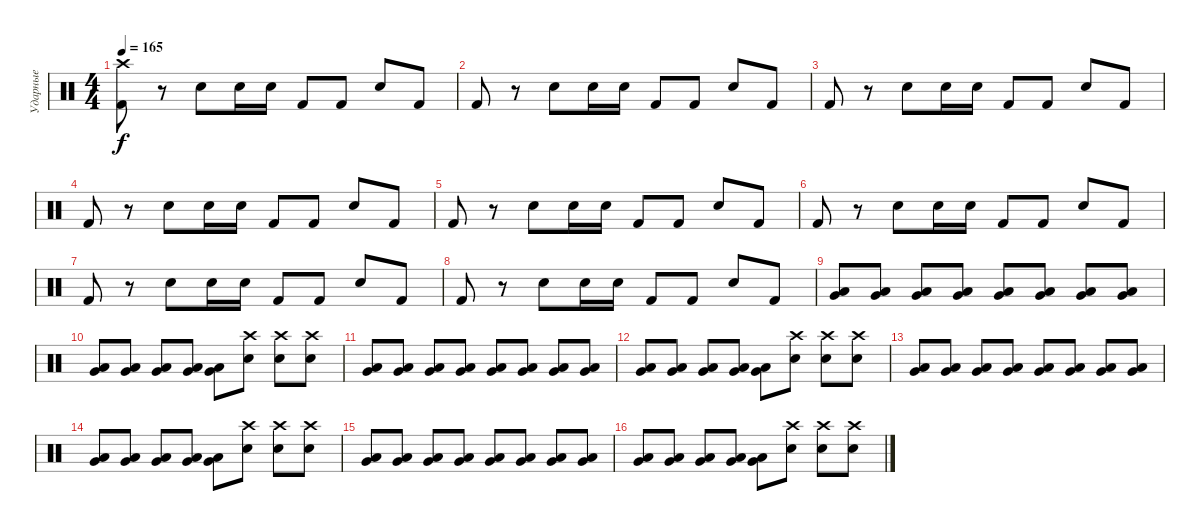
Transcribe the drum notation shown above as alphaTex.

\track ("Ударные" "Ударные") {instrument percussion}
\staff {score}
\articulation defaults
\ts (4 4)
\tempo 165
\clef neutral
\ks c
("Crash high (hit)" "Kick (hit) 2").8{dy f} r.8 "Electric Snare (hit)".8 "Electric Snare (hit)".16 "Electric Snare (hit)".16 "Kick (hit) 2".8 "Kick (hit) 2".8 "Electric Snare (hit)".8 "Kick (hit) 2".8 |
"Kick (hit) 2".8 r.8 "Electric Snare (hit)".8 "Electric Snare (hit)".16 "Electric Snare (hit)".16 "Kick (hit) 2".8 "Kick (hit) 2".8 "Electric Snare (hit)".8 "Kick (hit) 2".8 |
"Kick (hit) 2".8 r.8 "Electric Snare (hit)".8 "Electric Snare (hit)".16 "Electric Snare (hit)".16 "Kick (hit) 2".8 "Kick (hit) 2".8 "Electric Snare (hit)".8 "Kick (hit) 2".8 |
"Kick (hit) 2".8 r.8 "Electric Snare (hit)".8 "Electric Snare (hit)".16 "Electric Snare (hit)".16 "Kick (hit) 2".8 "Kick (hit) 2".8 "Electric Snare (hit)".8 "Kick (hit) 2".8 |
"Kick (hit) 2".8 r.8 "Electric Snare (hit)".8 "Electric Snare (hit)".16 "Electric Snare (hit)".16 "Kick (hit) 2".8 "Kick (hit) 2".8 "Electric Snare (hit)".8 "Kick (hit) 2".8 |
"Kick (hit) 2".8 r.8 "Electric Snare (hit)".8 "Electric Snare (hit)".16 "Electric Snare (hit)".16 "Kick (hit) 2".8 "Kick (hit) 2".8 "Electric Snare (hit)".8 "Kick (hit) 2".8 |
"Kick (hit) 2".8 r.8 "Electric Snare (hit)".8 "Electric Snare (hit)".16 "Electric Snare (hit)".16 "Kick (hit) 2".8 "Kick (hit) 2".8 "Electric Snare (hit)".8 "Kick (hit) 2".8 |
"Kick (hit) 2".8 r.8 "Electric Snare (hit)".8 "Electric Snare (hit)".16 "Electric Snare (hit)".16 "Kick (hit) 2".8 "Kick (hit) 2".8 "Electric Snare (hit)".8 "Kick (hit) 2".8 |
("Very Low Tom (hit)" "Low Floor Tom (hit)").8 ("Very Low Tom (hit)" "Low Floor Tom (hit)").8 ("Very Low Tom (hit)" "Low Floor Tom (hit)").8 ("Very Low Tom (hit)" "Low Floor Tom (hit)").8 ("Very Low Tom (hit)" "Low Floor Tom (hit)").8 ("Very Low Tom (hit)" "Low Floor Tom (hit)").8 ("Very Low Tom (hit)" "Low Floor Tom (hit)").8 ("Very Low Tom (hit)" "Low Floor Tom (hit)").8 |
("Very Low Tom (hit)" "Low Floor Tom (hit)").8 ("Very Low Tom (hit)" "Low Floor Tom (hit)").8 ("Very Low Tom (hit)" "Low Floor Tom (hit)").8 ("Very Low Tom (hit)" "Low Floor Tom (hit)").8 ("Very Low Tom (hit)" "Low Floor Tom (hit)").8 ("Crash high (hit)" "Electric Snare (hit)").8 ("Crash high (hit)" "Electric Snare (hit)").8 ("Crash high (hit)" "Electric Snare (hit)").8 |
("Very Low Tom (hit)" "Low Floor Tom (hit)").8 ("Very Low Tom (hit)" "Low Floor Tom (hit)").8 ("Very Low Tom (hit)" "Low Floor Tom (hit)").8 ("Very Low Tom (hit)" "Low Floor Tom (hit)").8 ("Very Low Tom (hit)" "Low Floor Tom (hit)").8 ("Very Low Tom (hit)" "Low Floor Tom (hit)").8 ("Very Low Tom (hit)" "Low Floor Tom (hit)").8 ("Very Low Tom (hit)" "Low Floor Tom (hit)").8 |
("Very Low Tom (hit)" "Low Floor Tom (hit)").8 ("Very Low Tom (hit)" "Low Floor Tom (hit)").8 ("Very Low Tom (hit)" "Low Floor Tom (hit)").8 ("Very Low Tom (hit)" "Low Floor Tom (hit)").8 ("Very Low Tom (hit)" "Low Floor Tom (hit)").8 ("Crash high (hit)" "Electric Snare (hit)").8 ("Crash high (hit)" "Electric Snare (hit)").8 ("Crash high (hit)" "Electric Snare (hit)").8 |
("Very Low Tom (hit)" "Low Floor Tom (hit)").8 ("Very Low Tom (hit)" "Low Floor Tom (hit)").8 ("Very Low Tom (hit)" "Low Floor Tom (hit)").8 ("Very Low Tom (hit)" "Low Floor Tom (hit)").8 ("Very Low Tom (hit)" "Low Floor Tom (hit)").8 ("Very Low Tom (hit)" "Low Floor Tom (hit)").8 ("Very Low Tom (hit)" "Low Floor Tom (hit)").8 ("Very Low Tom (hit)" "Low Floor Tom (hit)").8 |
("Very Low Tom (hit)" "Low Floor Tom (hit)").8 ("Very Low Tom (hit)" "Low Floor Tom (hit)").8 ("Very Low Tom (hit)" "Low Floor Tom (hit)").8 ("Very Low Tom (hit)" "Low Floor Tom (hit)").8 ("Very Low Tom (hit)" "Low Floor Tom (hit)").8 ("Crash high (hit)" "Electric Snare (hit)").8 ("Crash high (hit)" "Electric Snare (hit)").8 ("Crash high (hit)" "Electric Snare (hit)").8 |
("Very Low Tom (hit)" "Low Floor Tom (hit)").8 ("Very Low Tom (hit)" "Low Floor Tom (hit)").8 ("Very Low Tom (hit)" "Low Floor Tom (hit)").8 ("Very Low Tom (hit)" "Low Floor Tom (hit)").8 ("Very Low Tom (hit)" "Low Floor Tom (hit)").8 ("Very Low Tom (hit)" "Low Floor Tom (hit)").8 ("Very Low Tom (hit)" "Low Floor Tom (hit)").8 ("Very Low Tom (hit)" "Low Floor Tom (hit)").8 |
("Very Low Tom (hit)" "Low Floor Tom (hit)").8 ("Very Low Tom (hit)" "Low Floor Tom (hit)").8 ("Very Low Tom (hit)" "Low Floor Tom (hit)").8 ("Very Low Tom (hit)" "Low Floor Tom (hit)").8 ("Very Low Tom (hit)" "Low Floor Tom (hit)").8 ("Crash high (hit)" "Electric Snare (hit)").8 ("Crash high (hit)" "Electric Snare (hit)").8 ("Crash high (hit)" "Electric Snare (hit)").8
